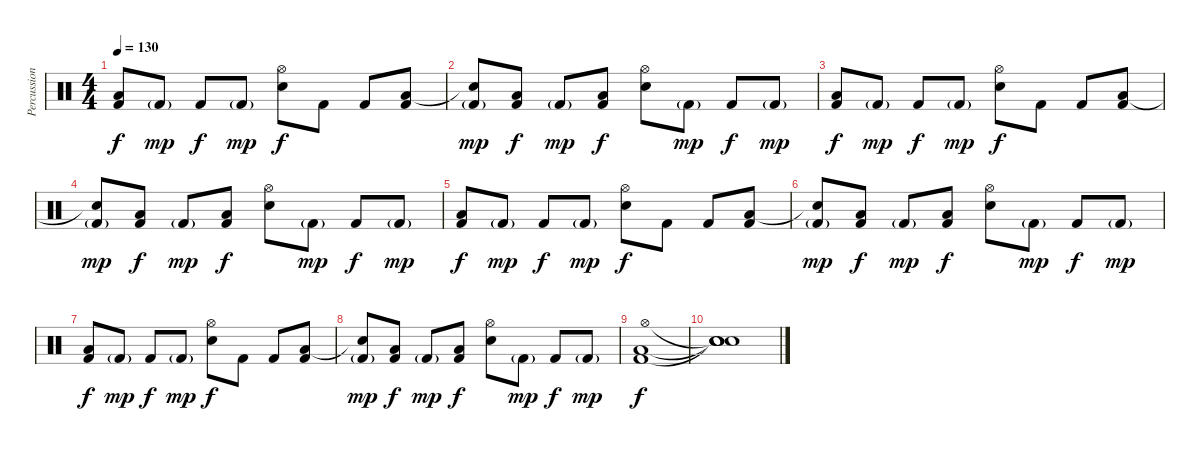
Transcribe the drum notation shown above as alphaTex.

\track ("Percussions" "Percussion") {instrument percussion}
\staff {score}
\articulation defaults
\ts (4 4)
\tempo 130
\clef neutral
\ks c
("Low Floor Tom (hit)" "Kick (hit) 2").8{dy f} "Kick (hit) 2"{g}.8{dy mp} "Kick (hit) 2".8{dy f} "Kick (hit) 2"{g}.8{dy mp} ("Hi-Hat (open)" "Electric Snare (hit)").8{dy f} "Kick (hit) 2".8 "Kick (hit) 2".8 ("Low Tom (hit)" "Kick (hit) 2").8 |
("Snare (hit)"{t} "Kick (hit) 2"{g}).8{dy mp} ("Low Floor Tom (hit)" "Kick (hit) 2").8{dy f} "Kick (hit) 2"{g}.8{dy mp} ("Low Floor Tom (hit)" "Kick (hit) 2").8{dy f} ("Hi-Hat (open)" "Electric Snare (hit)").8 "Kick (hit) 2"{g}.8{dy mp} "Kick (hit) 2".8{dy f} "Kick (hit) 2"{g}.8{dy mp} |
("Low Floor Tom (hit)" "Kick (hit) 2").8{dy f} "Kick (hit) 2"{g}.8{dy mp} "Kick (hit) 2".8{dy f} "Kick (hit) 2"{g}.8{dy mp} ("Hi-Hat (open)" "Electric Snare (hit)").8{dy f} "Kick (hit) 2".8 "Kick (hit) 2".8 ("Low Tom (hit)" "Kick (hit) 2").8 |
("Snare (hit)"{t} "Kick (hit) 2"{g}).8{dy mp} ("Low Floor Tom (hit)" "Kick (hit) 2").8{dy f} "Kick (hit) 2"{g}.8{dy mp} ("Low Floor Tom (hit)" "Kick (hit) 2").8{dy f} ("Hi-Hat (open)" "Electric Snare (hit)").8 "Kick (hit) 2"{g}.8{dy mp} "Kick (hit) 2".8{dy f} "Kick (hit) 2"{g}.8{dy mp} |
("Low Floor Tom (hit)" "Kick (hit) 2").8{dy f} "Kick (hit) 2"{g}.8{dy mp} "Kick (hit) 2".8{dy f} "Kick (hit) 2"{g}.8{dy mp} ("Hi-Hat (open)" "Electric Snare (hit)").8{dy f} "Kick (hit) 2".8 "Kick (hit) 2".8 ("Low Tom (hit)" "Kick (hit) 2").8 |
("Snare (hit)"{t} "Kick (hit) 2"{g}).8{dy mp} ("Low Floor Tom (hit)" "Kick (hit) 2").8{dy f} "Kick (hit) 2"{g}.8{dy mp} ("Low Floor Tom (hit)" "Kick (hit) 2").8{dy f} ("Hi-Hat (open)" "Electric Snare (hit)").8 "Kick (hit) 2"{g}.8{dy mp} "Kick (hit) 2".8{dy f} "Kick (hit) 2"{g}.8{dy mp} |
("Low Floor Tom (hit)" "Kick (hit) 2").8{dy f} "Kick (hit) 2"{g}.8{dy mp} "Kick (hit) 2".8{dy f} "Kick (hit) 2"{g}.8{dy mp} ("Hi-Hat (open)" "Electric Snare (hit)").8{dy f} "Kick (hit) 2".8 "Kick (hit) 2".8 ("Low Tom (hit)" "Kick (hit) 2").8 |
("Snare (hit)"{t} "Kick (hit) 2"{g}).8{dy mp} ("Low Floor Tom (hit)" "Kick (hit) 2").8{dy f} "Kick (hit) 2"{g}.8{dy mp} ("Low Floor Tom (hit)" "Kick (hit) 2").8{dy f} ("Hi-Hat (open)" "Electric Snare (hit)").8 "Kick (hit) 2"{g}.8{dy mp} "Kick (hit) 2".8{dy f} "Kick (hit) 2"{g}.8{dy mp} |
("Hi-Hat (open)" "Low Tom (hit)" "Kick (hit) 2").1{dy f} |
("Snare (hit)"{t} "Snare (hit)"{t} "Snare (hit)"{t} "Snare (hit)").1
